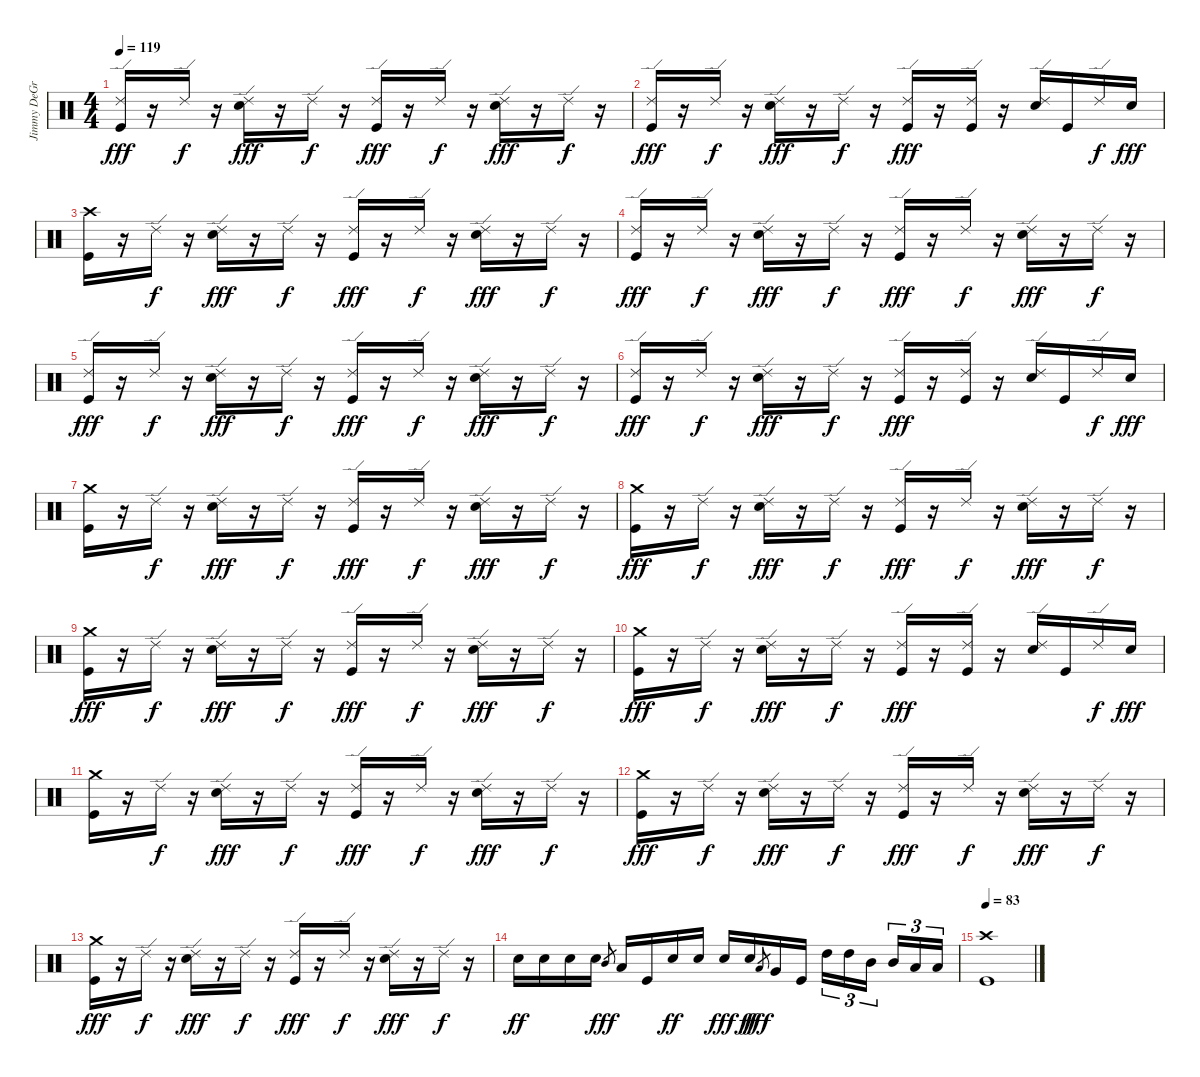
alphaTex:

\track ("Jimmy DeGrasso" "Jimmy DeGr") {instrument percussion}
\staff {score}
\articulation defaults
\ts (4 4)
\tempo 119
\clef neutral
\ks c
("Kick (hit)" "Ride (edge) 2").16{dy fff} r.16 "Ride (edge) 2".16{dy f} r.16 ("Electric Snare (hit)" "Ride (edge) 2").16{dy fff} r.16 "Ride (edge) 2".16{dy f} r.16 ("Kick (hit)" "Ride (edge) 2").16{dy fff} r.16 "Ride (edge) 2".16{dy f} r.16 ("Electric Snare (hit)" "Ride (edge) 2").16{dy fff} r.16 "Ride (edge) 2".16{dy f} r.16 |
("Kick (hit)" "Ride (edge) 2").16{dy fff} r.16 "Ride (edge) 2".16{dy f} r.16 ("Electric Snare (hit)" "Ride (edge) 2").16{dy fff} r.16 "Ride (edge) 2".16{dy f} r.16 ("Kick (hit)" "Ride (edge) 2").16{dy fff} r.16 ("Kick (hit)" "Ride (edge) 2").16 r.16 ("Electric Snare (hit)" "Ride (edge) 2").16 "Kick (hit)".16 "Ride (edge) 2".16{dy f} "Electric Snare (hit)".16{dy fff} |
("Kick (hit)" "Crash high (hit)").16 r.16 "Ride (edge) 2".16{dy f} r.16 ("Electric Snare (hit)" "Ride (edge) 2").16{dy fff} r.16 "Ride (edge) 2".16{dy f} r.16 ("Kick (hit)" "Ride (edge) 2").16{dy fff} r.16 "Ride (edge) 2".16{dy f} r.16 ("Electric Snare (hit)" "Ride (edge) 2").16{dy fff} r.16 "Ride (edge) 2".16{dy f} r.16 |
("Kick (hit)" "Ride (edge) 2").16{dy fff} r.16 "Ride (edge) 2".16{dy f} r.16 ("Electric Snare (hit)" "Ride (edge) 2").16{dy fff} r.16 "Ride (edge) 2".16{dy f} r.16 ("Kick (hit)" "Ride (edge) 2").16{dy fff} r.16 "Ride (edge) 2".16{dy f} r.16 ("Electric Snare (hit)" "Ride (edge) 2").16{dy fff} r.16 "Ride (edge) 2".16{dy f} r.16 |
("Kick (hit)" "Ride (edge) 2").16{dy fff} r.16 "Ride (edge) 2".16{dy f} r.16 ("Electric Snare (hit)" "Ride (edge) 2").16{dy fff} r.16 "Ride (edge) 2".16{dy f} r.16 ("Kick (hit)" "Ride (edge) 2").16{dy fff} r.16 "Ride (edge) 2".16{dy f} r.16 ("Electric Snare (hit)" "Ride (edge) 2").16{dy fff} r.16 "Ride (edge) 2".16{dy f} r.16 |
("Kick (hit)" "Ride (edge) 2").16{dy fff} r.16 "Ride (edge) 2".16{dy f} r.16 ("Electric Snare (hit)" "Ride (edge) 2").16{dy fff} r.16 "Ride (edge) 2".16{dy f} r.16 ("Kick (hit)" "Ride (edge) 2").16{dy fff} r.16 ("Kick (hit)" "Ride (edge) 2").16 r.16 ("Electric Snare (hit)" "Ride (edge) 2").16 "Kick (hit)".16 "Ride (edge) 2".16{dy f} "Electric Snare (hit)".16{dy fff} |
("Kick (hit)" "Crash medium (hit)").16 r.16 "Ride (edge) 2".16{dy f} r.16 ("Electric Snare (hit)" "Ride (edge) 2").16{dy fff} r.16 "Ride (edge) 2".16{dy f} r.16 ("Kick (hit)" "Ride (edge) 2").16{dy fff} r.16 "Ride (edge) 2".16{dy f} r.16 ("Electric Snare (hit)" "Ride (edge) 2").16{dy fff} r.16 "Ride (edge) 2".16{dy f} r.16 |
("Kick (hit)" "Crash medium (hit)").16{dy fff} r.16 "Ride (edge) 2".16{dy f} r.16 ("Electric Snare (hit)" "Ride (edge) 2").16{dy fff} r.16 "Ride (edge) 2".16{dy f} r.16 ("Kick (hit)" "Ride (edge) 2").16{dy fff} r.16 "Ride (edge) 2".16{dy f} r.16 ("Electric Snare (hit)" "Ride (edge) 2").16{dy fff} r.16 "Ride (edge) 2".16{dy f} r.16 |
("Kick (hit)" "Crash medium (hit)").16{dy fff} r.16 "Ride (edge) 2".16{dy f} r.16 ("Electric Snare (hit)" "Ride (edge) 2").16{dy fff} r.16 "Ride (edge) 2".16{dy f} r.16 ("Kick (hit)" "Ride (edge) 2").16{dy fff} r.16 "Ride (edge) 2".16{dy f} r.16 ("Electric Snare (hit)" "Ride (edge) 2").16{dy fff} r.16 "Ride (edge) 2".16{dy f} r.16 |
("Kick (hit)" "Crash medium (hit)").16{dy fff} r.16 "Ride (edge) 2".16{dy f} r.16 ("Electric Snare (hit)" "Ride (edge) 2").16{dy fff} r.16 "Ride (edge) 2".16{dy f} r.16 ("Kick (hit)" "Ride (edge) 2").16{dy fff} r.16 ("Kick (hit)" "Ride (edge) 2").16 r.16 ("Electric Snare (hit)" "Ride (edge) 2").16 "Kick (hit)".16 "Ride (edge) 2".16{dy f} "Electric Snare (hit)".16{dy fff} |
("Kick (hit)" "Crash medium (hit)").16 r.16 "Ride (edge) 2".16{dy f} r.16 ("Electric Snare (hit)" "Ride (edge) 2").16{dy fff} r.16 "Ride (edge) 2".16{dy f} r.16 ("Kick (hit)" "Ride (edge) 2").16{dy fff} r.16 "Ride (edge) 2".16{dy f} r.16 ("Electric Snare (hit)" "Ride (edge) 2").16{dy fff} r.16 "Ride (edge) 2".16{dy f} r.16 |
("Kick (hit)" "Crash medium (hit)").16{dy fff} r.16 "Ride (edge) 2".16{dy f} r.16 ("Electric Snare (hit)" "Ride (edge) 2").16{dy fff} r.16 "Ride (edge) 2".16{dy f} r.16 ("Kick (hit)" "Ride (edge) 2").16{dy fff} r.16 "Ride (edge) 2".16{dy f} r.16 ("Electric Snare (hit)" "Ride (edge) 2").16{dy fff} r.16 "Ride (edge) 2".16{dy f} r.16 |
("Kick (hit)" "Crash medium (hit)").16{dy fff} r.16 "Ride (edge) 2".16{dy f} r.16 ("Electric Snare (hit)" "Ride (edge) 2").16{dy fff} r.16 "Ride (edge) 2".16{dy f} r.16 ("Kick (hit)" "Ride (edge) 2").16{dy fff} r.16 "Ride (edge) 2".16{dy f} r.16 ("Electric Snare (hit)" "Ride (edge) 2").16{dy fff} r.16 "Ride (edge) 2".16{dy f} r.16 |
"Electric Snare (hit)".16{dy ff} "Electric Snare (hit)".16 "Electric Snare (hit)".16 "Electric Snare (hit)".16 "Mid Tom (hit)".8{gr dy fff} "Low Tom (hit)".16 "Kick (hit)".16 "Electric Snare (hit)".16{dy ff} "Electric Snare (hit)".16 "Electric Snare (hit)".16{dy fff} "Electric Snare (hit)".16{dy ff} "Low Tom (hit)".8{gr dy fff} "Very Low Tom (hit)".16 "Kick (hit)".16 "High Tom (hit)".16{tu (3 2)} "High Tom (hit)".16{tu (3 2)} "Mid Tom (hit)".16{tu (3 2)} "Mid Tom (hit)".16{tu (3 2)} "Low Tom (hit)".16{tu (3 2)} "Low Tom (hit)".16{tu (3 2)} |
\tempo 83
("Kick (hit)" "Crash high (hit)").1
